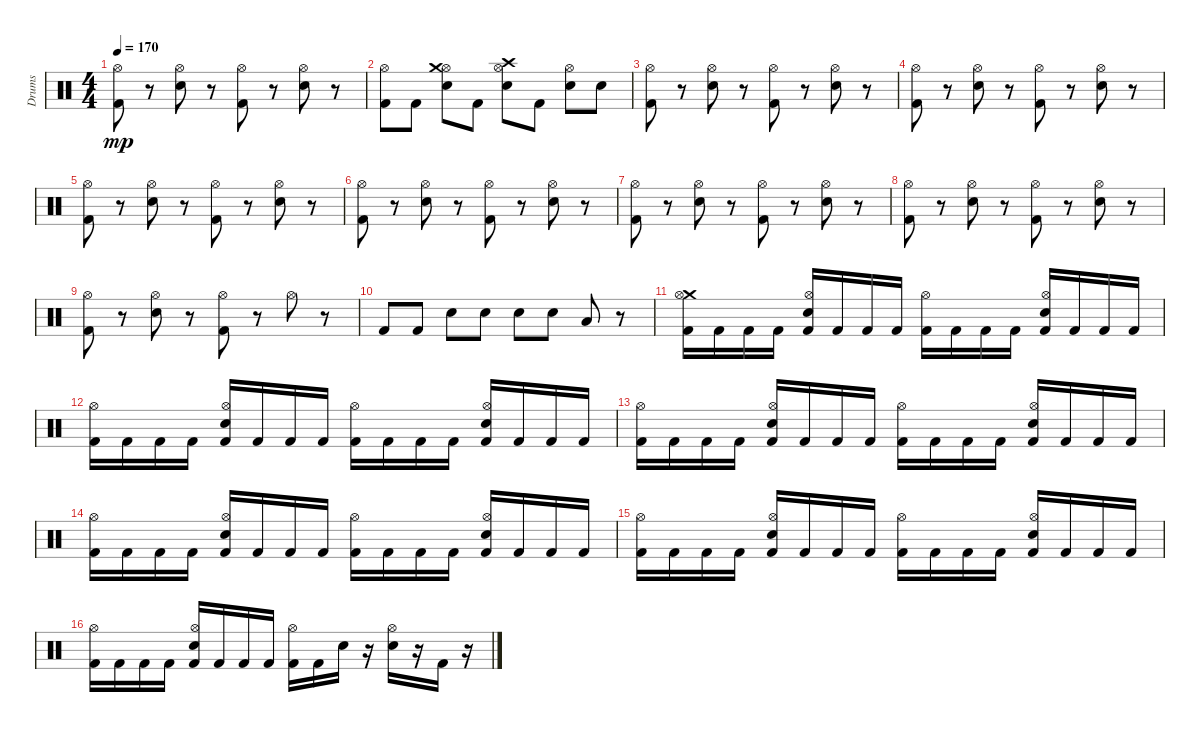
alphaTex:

\track ("Drums" "Drums") {instrument percussion}
\staff {score}
\articulation defaults
\ts (4 4)
\tempo 170
\clef neutral
\ks c
("Kick (hit) 2" "Hi-Hat (open)").8{dy mp} r.8 ("Hi-Hat (open)" "Electric Snare (hit)").8 r.8 ("Kick (hit) 2" "Hi-Hat (open)").8 r.8 ("Electric Snare (hit)" "Hi-Hat (open)").8 r.8 |
("Kick (hit) 2" "Hi-Hat (open)").8 "Kick (hit) 2".8 ("Hi-Hat (open)" "Crash medium (hit)" "Electric Snare (hit)").8 "Kick (hit) 2".8 ("Hi-Hat (open)" "Electric Snare (hit)" "Crash high (hit)").8 "Kick (hit) 2".8 ("Hi-Hat (open)" "Electric Snare (hit)").8 "Electric Snare (hit)".8 |
("Hi-Hat (open)" "Kick (hit) 2").8 r.8 ("Hi-Hat (open)" "Electric Snare (hit)").8 r.8 ("Kick (hit) 2" "Hi-Hat (open)").8 r.8 ("Hi-Hat (open)" "Electric Snare (hit)").8 r.8 |
("Hi-Hat (open)" "Kick (hit) 2").8 r.8 ("Electric Snare (hit)" "Hi-Hat (open)").8 r.8 ("Kick (hit) 2" "Hi-Hat (open)").8 r.8 ("Hi-Hat (open)" "Electric Snare (hit)").8 r.8 |
("Hi-Hat (open)" "Kick (hit) 2").8 r.8 ("Hi-Hat (open)" "Electric Snare (hit)").8 r.8 ("Kick (hit) 2" "Hi-Hat (open)").8 r.8 ("Hi-Hat (open)" "Electric Snare (hit)").8 r.8 |
("Kick (hit) 2" "Hi-Hat (open)").8 r.8 ("Hi-Hat (open)" "Electric Snare (hit)").8 r.8 ("Kick (hit) 2" "Hi-Hat (open)").8 r.8 ("Hi-Hat (open)" "Electric Snare (hit)").8 r.8 |
("Hi-Hat (open)" "Kick (hit) 2").8 r.8 ("Hi-Hat (open)" "Electric Snare (hit)").8 r.8 ("Kick (hit) 2" "Hi-Hat (open)").8 r.8 ("Hi-Hat (open)" "Electric Snare (hit)").8 r.8 |
("Kick (hit) 2" "Hi-Hat (open)").8 r.8 ("Electric Snare (hit)" "Hi-Hat (open)").8 r.8 ("Kick (hit) 2" "Hi-Hat (open)").8 r.8 ("Hi-Hat (open)" "Electric Snare (hit)").8 r.8 |
("Kick (hit) 2" "Hi-Hat (open)").8 r.8 ("Hi-Hat (open)" "Electric Snare (hit)").8 r.8 ("Hi-Hat (open)" "Kick (hit) 2").8 r.8 "Hi-Hat (open)".8 r.8 |
"Kick (hit) 2".8 "Kick (hit) 2".8 "Electric Snare (hit)".8 "Electric Snare (hit)".8 "Electric Snare (hit)".8 "Electric Snare (hit)".8 "Low Floor Tom (hit)".8 r.8 |
("Kick (hit) 2" "Crash medium (hit)" "Hi-Hat (open)").16 "Kick (hit) 2".16 "Kick (hit) 2".16 "Kick (hit) 2".16 ("Electric Snare (hit)" "Kick (hit) 2" "Hi-Hat (open)").16 "Kick (hit) 2".16 "Kick (hit) 2".16 "Kick (hit) 2".16 ("Kick (hit) 2" "Hi-Hat (open)").16 "Kick (hit) 2".16 "Kick (hit) 2".16 "Kick (hit) 2".16 ("Kick (hit) 2" "Electric Snare (hit)" "Hi-Hat (open)").16 "Kick (hit) 2".16 "Kick (hit) 2".16 "Kick (hit) 2".16 |
("Hi-Hat (open)" "Kick (hit) 2").16 "Kick (hit) 2".16 "Kick (hit) 2".16 "Kick (hit) 2".16 ("Hi-Hat (open)" "Electric Snare (hit)" "Kick (hit) 2").16 "Kick (hit) 2".16 "Kick (hit) 2".16 "Kick (hit) 2".16 ("Hi-Hat (open)" "Kick (hit) 2").16 "Kick (hit) 2".16 "Kick (hit) 2".16 "Kick (hit) 2".16 ("Hi-Hat (open)" "Kick (hit) 2" "Electric Snare (hit)").16 "Kick (hit) 2".16 "Kick (hit) 2".16 "Kick (hit) 2".16 |
("Hi-Hat (open)" "Kick (hit) 2").16 "Kick (hit) 2".16 "Kick (hit) 2".16 "Kick (hit) 2".16 ("Hi-Hat (open)" "Electric Snare (hit)" "Kick (hit) 2").16 "Kick (hit) 2".16 "Kick (hit) 2".16 "Kick (hit) 2".16 ("Hi-Hat (open)" "Kick (hit) 2").16 "Kick (hit) 2".16 "Kick (hit) 2".16 "Kick (hit) 2".16 ("Kick (hit) 2" "Hi-Hat (open)" "Electric Snare (hit)").16 "Kick (hit) 2".16 "Kick (hit) 2".16 "Kick (hit) 2".16 |
("Kick (hit) 2" "Hi-Hat (open)").16 "Kick (hit) 2".16 "Kick (hit) 2".16 "Kick (hit) 2".16 ("Kick (hit) 2" "Electric Snare (hit)" "Hi-Hat (open)").16 "Kick (hit) 2".16 "Kick (hit) 2".16 "Kick (hit) 2".16 ("Kick (hit) 2" "Hi-Hat (open)").16 "Kick (hit) 2".16 "Kick (hit) 2".16 "Kick (hit) 2".16 ("Hi-Hat (open)" "Kick (hit) 2" "Electric Snare (hit)").16 "Kick (hit) 2".16 "Kick (hit) 2".16 "Kick (hit) 2".16 |
("Kick (hit) 2" "Hi-Hat (open)").16 "Kick (hit) 2".16 "Kick (hit) 2".16 "Kick (hit) 2".16 ("Kick (hit) 2" "Electric Snare (hit)" "Hi-Hat (open)").16 "Kick (hit) 2".16 "Kick (hit) 2".16 "Kick (hit) 2".16 ("Hi-Hat (open)" "Kick (hit) 2").16 "Kick (hit) 2".16 "Kick (hit) 2".16 "Kick (hit) 2".16 ("Hi-Hat (open)" "Kick (hit) 2" "Electric Snare (hit)").16 "Kick (hit) 2".16 "Kick (hit) 2".16 "Kick (hit) 2".16 |
("Kick (hit) 2" "Hi-Hat (open)").16 "Kick (hit) 2".16 "Kick (hit) 2".16 "Kick (hit) 2".16 ("Kick (hit) 2" "Electric Snare (hit)" "Hi-Hat (open)").16 "Kick (hit) 2".16 "Kick (hit) 2".16 "Kick (hit) 2".16 ("Kick (hit) 2" "Hi-Hat (open)").16 "Kick (hit) 2".16 "Electric Snare (hit)".16 r.16 ("Hi-Hat (open)" "Electric Snare (hit)").16 r.16 "Kick (hit) 2".16 r.16
